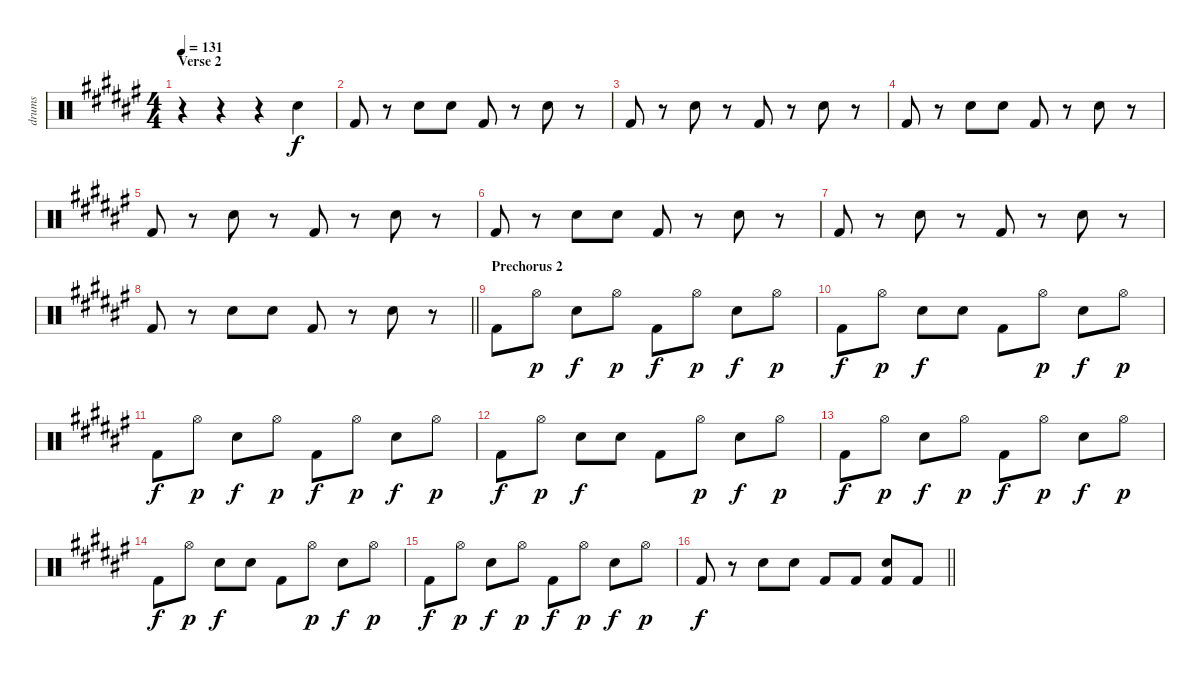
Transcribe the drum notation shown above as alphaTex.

\track ("drums" "drums") {instrument percussion}
\staff {score}
\articulation defaults
\ts (4 4)
\section ("" "Verse 2")
\tempo 131
\clef neutral
\ks f#
r.4{dy f} r.4 r.4 "Electric Snare (hit)".4 |
"Kick (hit) 2".8 r.8 "Snare (hit) 2".8 "Snare (hit) 2".8 "Kick (hit) 2".8 r.8 "Snare (hit) 2".8 r.8 |
"Kick (hit) 2".8 r.8 "Snare (hit) 2".8 r.8 "Kick (hit) 2".8 r.8 "Snare (hit) 2".8 r.8 |
"Kick (hit) 2".8 r.8 "Snare (hit) 2".8 "Snare (hit) 2".8 "Kick (hit) 2".8 r.8 "Snare (hit) 2".8 r.8 |
"Kick (hit) 2".8 r.8 "Snare (hit) 2".8 r.8 "Kick (hit) 2".8 r.8 "Snare (hit) 2".8 r.8 |
"Kick (hit) 2".8 r.8 "Snare (hit) 2".8 "Snare (hit) 2".8 "Kick (hit) 2".8 r.8 "Snare (hit) 2".8 r.8 |
"Kick (hit) 2".8 r.8 "Snare (hit) 2".8 r.8 "Kick (hit) 2".8 r.8 "Snare (hit) 2".8 r.8 |
\barLineRight lightlight "Kick (hit) 2".8
r.8 "Snare (hit) 2".8 "Snare (hit) 2".8 "Kick (hit) 2".8 r.8 "Snare (hit) 2".8 r.8 |
\section ("" "Prechorus 2")
"Kick (hit) 2".8 "Hi-Hat (open)".8{dy p} "Snare (hit) 2".8{dy f} "Hi-Hat (open)".8{dy p} "Kick (hit) 2".8{dy f} "Hi-Hat (open)".8{dy p} "Snare (hit) 2".8{dy f} "Hi-Hat (open)".8{dy p} |
"Kick (hit) 2".8{dy f} "Hi-Hat (open)".8{dy p} "Snare (hit) 2".8{dy f} "Snare (hit) 2".8 "Kick (hit) 2".8 "Hi-Hat (open)".8{dy p} "Snare (hit) 2".8{dy f} "Hi-Hat (open)".8{dy p} |
"Kick (hit) 2".8{dy f} "Hi-Hat (open)".8{dy p} "Snare (hit) 2".8{dy f} "Hi-Hat (open)".8{dy p} "Kick (hit) 2".8{dy f} "Hi-Hat (open)".8{dy p} "Snare (hit) 2".8{dy f} "Hi-Hat (open)".8{dy p} |
"Kick (hit) 2".8{dy f} "Hi-Hat (open)".8{dy p} "Snare (hit) 2".8{dy f} "Snare (hit) 2".8 "Kick (hit) 2".8 "Hi-Hat (open)".8{dy p} "Snare (hit) 2".8{dy f} "Hi-Hat (open)".8{dy p} |
"Kick (hit) 2".8{dy f} "Hi-Hat (open)".8{dy p} "Snare (hit) 2".8{dy f} "Hi-Hat (open)".8{dy p} "Kick (hit) 2".8{dy f} "Hi-Hat (open)".8{dy p} "Snare (hit) 2".8{dy f} "Hi-Hat (open)".8{dy p} |
"Kick (hit) 2".8{dy f} "Hi-Hat (open)".8{dy p} "Snare (hit) 2".8{dy f} "Snare (hit) 2".8 "Kick (hit) 2".8 "Hi-Hat (open)".8{dy p} "Snare (hit) 2".8{dy f} "Hi-Hat (open)".8{dy p} |
"Kick (hit) 2".8{dy f} "Hi-Hat (open)".8{dy p} "Snare (hit) 2".8{dy f} "Hi-Hat (open)".8{dy p} "Kick (hit) 2".8{dy f} "Hi-Hat (open)".8{dy p} "Snare (hit) 2".8{dy f} "Hi-Hat (open)".8{dy p} |
\barLineRight lightlight "Kick (hit) 2".8{dy f}
r.8 "Snare (hit) 2".8 "Snare (hit) 2".8 "Kick (hit) 2".8 "Kick (hit) 2".8 ("Snare (hit) 2" "Kick (hit) 2").8 "Kick (hit) 2".8
